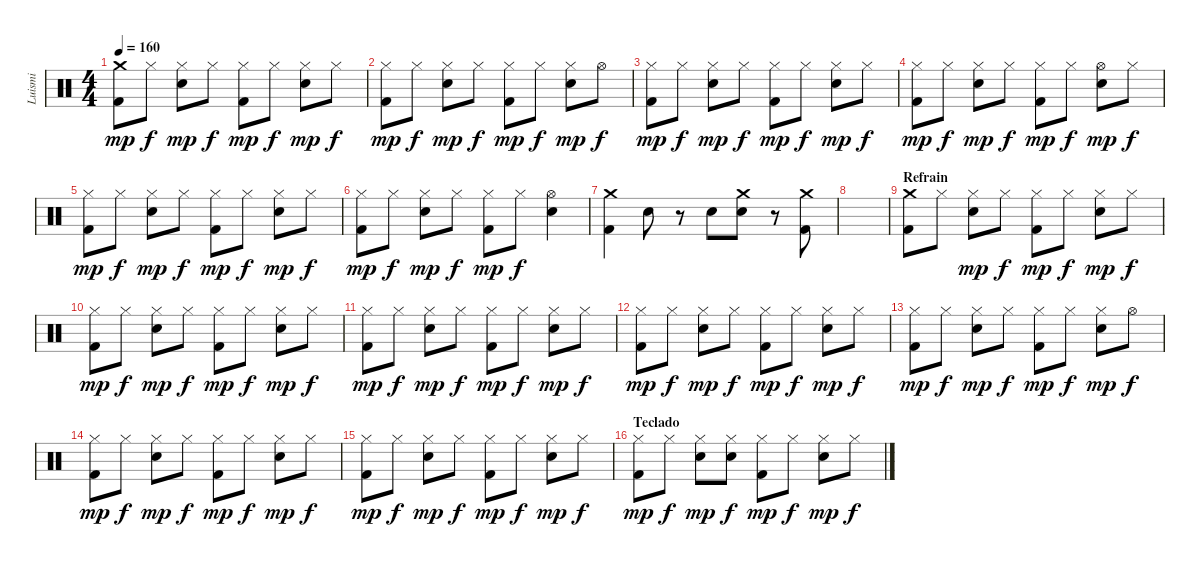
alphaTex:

\track ("Luismi" "Luismi") {instrument percussion}
\staff {score}
\articulation defaults
\ts (4 4)
\tempo 160
\clef neutral
\ks c
("Crash medium (hit)" "Kick (hit) 2").8{dy mp} "Hi-Hat (closed)".8{dy f} ("Hi-Hat (closed)" "Snare (hit) 2").8{dy mp} "Hi-Hat (closed)".8{dy f} ("Hi-Hat (closed)" "Kick (hit) 2").8{dy mp} "Hi-Hat (closed)".8{dy f} ("Hi-Hat (closed)" "Snare (hit) 2").8{dy mp} "Hi-Hat (closed)".8{dy f} |
("Hi-Hat (closed)" "Kick (hit) 2").8{dy mp} "Hi-Hat (closed)".8{dy f} ("Hi-Hat (closed)" "Snare (hit) 2").8{dy mp} "Hi-Hat (closed)".8{dy f} ("Hi-Hat (closed)" "Kick (hit) 2").8{dy mp} "Hi-Hat (closed)".8{dy f} ("Hi-Hat (closed)" "Snare (hit) 2").8{dy mp} "Hi-Hat (open)".8{dy f} |
("Hi-Hat (closed)" "Kick (hit) 2").8{dy mp} "Hi-Hat (closed)".8{dy f} ("Hi-Hat (closed)" "Snare (hit) 2").8{dy mp} "Hi-Hat (closed)".8{dy f} ("Hi-Hat (closed)" "Kick (hit) 2").8{dy mp} "Hi-Hat (closed)".8{dy f} ("Hi-Hat (closed)" "Snare (hit) 2").8{dy mp} "Hi-Hat (closed)".8{dy f} |
("Hi-Hat (closed)" "Kick (hit) 2").8{dy mp} "Hi-Hat (closed)".8{dy f} ("Hi-Hat (closed)" "Snare (hit) 2").8{dy mp} "Hi-Hat (closed)".8{dy f} ("Hi-Hat (closed)" "Kick (hit) 2").8{dy mp} "Hi-Hat (closed)".8{dy f} ("Hi-Hat (open)" "Snare (hit) 2").8{dy mp} "Hi-Hat (closed)".8{dy f} |
("Hi-Hat (closed)" "Kick (hit) 2").8{dy mp} "Hi-Hat (closed)".8{dy f} ("Hi-Hat (closed)" "Snare (hit) 2").8{dy mp} "Hi-Hat (closed)".8{dy f} ("Hi-Hat (closed)" "Kick (hit) 2").8{dy mp} "Hi-Hat (closed)".8{dy f} ("Hi-Hat (closed)" "Snare (hit) 2").8{dy mp} "Hi-Hat (closed)".8{dy f} |
("Hi-Hat (closed)" "Kick (hit) 2").8{dy mp} "Hi-Hat (closed)".8{dy f} ("Hi-Hat (closed)" "Snare (hit) 2").8{dy mp} "Hi-Hat (closed)".8{dy f} ("Hi-Hat (closed)" "Kick (hit) 2").8{dy mp} "Hi-Hat (closed)".8{dy f} ("Hi-Hat (open)" "Snare (hit) 2").4 |
("Crash medium (hit)" "Kick (hit) 2").4 "Snare (hit) 2".8 r.8 "Snare (hit) 2".8 ("Crash medium (hit)" "Snare (hit) 2").8 r.8 ("Crash medium (hit)" "Kick (hit) 2").8 |
|
\section ("" "Refrain")
("Crash medium (hit)" "Kick (hit) 2").8 "Hi-Hat (closed)".8 ("Hi-Hat (closed)" "Snare (hit) 2").8{dy mp} "Hi-Hat (closed)".8{dy f} ("Hi-Hat (closed)" "Kick (hit) 2").8{dy mp} "Hi-Hat (closed)".8{dy f} ("Hi-Hat (closed)" "Snare (hit) 2").8{dy mp} "Hi-Hat (closed)".8{dy f} |
("Hi-Hat (closed)" "Kick (hit) 2").8{dy mp} "Hi-Hat (closed)".8{dy f} ("Hi-Hat (closed)" "Snare (hit) 2").8{dy mp} "Hi-Hat (closed)".8{dy f} ("Hi-Hat (closed)" "Kick (hit) 2").8{dy mp} "Hi-Hat (closed)".8{dy f} ("Hi-Hat (closed)" "Snare (hit) 2").8{dy mp} "Hi-Hat (closed)".8{dy f} |
("Hi-Hat (closed)" "Kick (hit) 2").8{dy mp} "Hi-Hat (closed)".8{dy f} ("Hi-Hat (closed)" "Snare (hit) 2").8{dy mp} "Hi-Hat (closed)".8{dy f} ("Hi-Hat (closed)" "Kick (hit) 2").8{dy mp} "Hi-Hat (closed)".8{dy f} ("Hi-Hat (closed)" "Snare (hit) 2").8{dy mp} "Hi-Hat (closed)".8{dy f} |
("Hi-Hat (closed)" "Kick (hit) 2").8{dy mp} "Hi-Hat (closed)".8{dy f} ("Hi-Hat (closed)" "Snare (hit) 2").8{dy mp} "Hi-Hat (closed)".8{dy f} ("Hi-Hat (closed)" "Kick (hit) 2").8{dy mp} "Hi-Hat (closed)".8{dy f} ("Hi-Hat (closed)" "Snare (hit) 2").8{dy mp} "Hi-Hat (closed)".8{dy f} |
("Hi-Hat (closed)" "Kick (hit) 2").8{dy mp} "Hi-Hat (closed)".8{dy f} ("Hi-Hat (closed)" "Snare (hit) 2").8{dy mp} "Hi-Hat (closed)".8{dy f} ("Hi-Hat (closed)" "Kick (hit) 2").8{dy mp} "Hi-Hat (closed)".8{dy f} ("Hi-Hat (closed)" "Snare (hit) 2").8{dy mp} "Hi-Hat (open)".8{dy f} |
("Hi-Hat (closed)" "Kick (hit) 2").8{dy mp} "Hi-Hat (closed)".8{dy f} ("Hi-Hat (closed)" "Snare (hit) 2").8{dy mp} "Hi-Hat (closed)".8{dy f} ("Hi-Hat (closed)" "Kick (hit) 2").8{dy mp} "Hi-Hat (closed)".8{dy f} ("Hi-Hat (closed)" "Snare (hit) 2").8{dy mp} "Hi-Hat (closed)".8{dy f} |
("Hi-Hat (closed)" "Kick (hit) 2").8{dy mp} "Hi-Hat (closed)".8{dy f} ("Hi-Hat (closed)" "Snare (hit) 2").8{dy mp} "Hi-Hat (closed)".8{dy f} ("Hi-Hat (closed)" "Kick (hit) 2").8{dy mp} "Hi-Hat (closed)".8{dy f} ("Hi-Hat (closed)" "Snare (hit) 2").8{dy mp} "Hi-Hat (closed)".8{dy f} |
\section ("" "Teclado")
("Hi-Hat (closed)" "Kick (hit) 2").8{dy mp} "Hi-Hat (closed)".8{dy f} ("Hi-Hat (closed)" "Snare (hit) 2").8{dy mp} ("Hi-Hat (closed)" "Snare (hit) 2").8{dy f} ("Hi-Hat (closed)" "Kick (hit) 2").8{dy mp} "Hi-Hat (closed)".8{dy f} ("Hi-Hat (closed)" "Snare (hit) 2").8{dy mp} "Hi-Hat (closed)".8{dy f}
